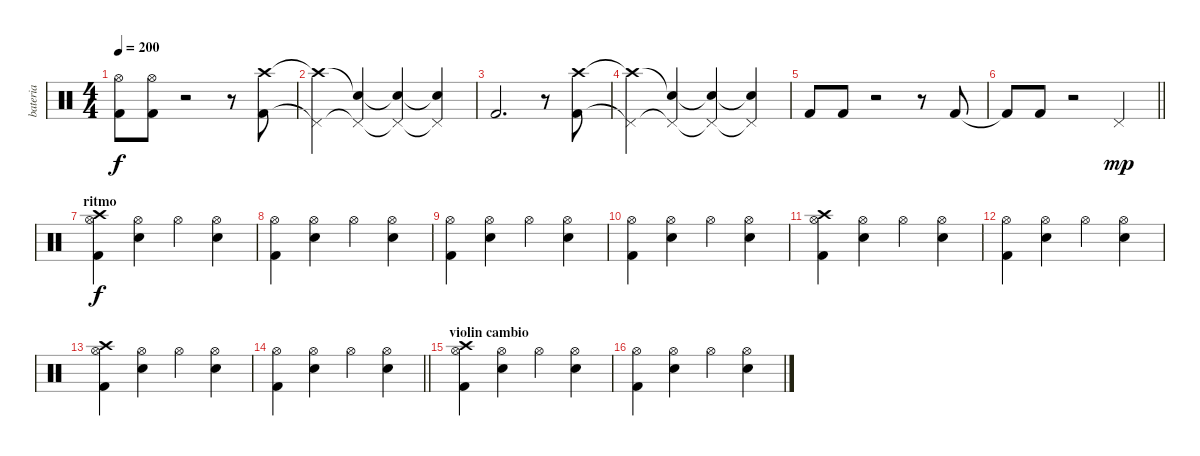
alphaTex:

\track ("bateria" "bateria") {instrument percussion}
\staff {score}
\articulation defaults
\ts (4 4)
\tempo 200
\clef neutral
\ks c
("Kick (hit) 2" "Hi-Hat (open)").8{dy f} ("Kick (hit) 2" "Hi-Hat (open)").8 r.2 r.8 ("Kick (hit) 2" "Crash high (hit)").8 |
("Pedal Hi-Hat (hit)"{t} "Crash high (hit)"{t}).4 ("Pedal Hi-Hat (hit)"{t} "Snare (hit)"{t}).4 ("Pedal Hi-Hat (hit)"{t} "Snare (hit)"{t}).4 ("Pedal Hi-Hat (hit)"{t} "Snare (hit)"{t}).4 |
"Kick (hit) 2".2{d} r.8 ("Kick (hit) 2" "Crash high (hit)").8 |
("Pedal Hi-Hat (hit)"{t} "Crash high (hit)"{t}).4 ("Pedal Hi-Hat (hit)"{t} "Snare (hit)"{t}).4 ("Pedal Hi-Hat (hit)"{t} "Snare (hit)"{t}).4 ("Pedal Hi-Hat (hit)"{t} "Snare (hit)"{t}).4 |
"Kick (hit) 2".8 "Kick (hit) 2".8 r.2 r.8 "Kick (hit) 2".8 |
\barLineRight lightlight "Kick (hit) 2"{t}.8 "Kick (hit) 2".8
r.2 "Pedal Hi-Hat (hit)".4{dy mp} |
\section ("" "ritmo")
("Hi-Hat (open)" "Kick (hit) 2" "Crash high (hit)").4{dy f} ("Hi-Hat (open)" "Electric Snare (hit)").4 "Hi-Hat (open)".4 ("Hi-Hat (open)" "Electric Snare (hit)").4 |
("Hi-Hat (open)" "Kick (hit) 2").4 ("Hi-Hat (open)" "Electric Snare (hit)").4 "Hi-Hat (open)".4 ("Hi-Hat (open)" "Electric Snare (hit)").4 |
("Hi-Hat (open)" "Kick (hit) 2").4 ("Hi-Hat (open)" "Electric Snare (hit)").4 "Hi-Hat (open)".4 ("Hi-Hat (open)" "Electric Snare (hit)").4 |
("Hi-Hat (open)" "Kick (hit) 2").4 ("Hi-Hat (open)" "Electric Snare (hit)").4 "Hi-Hat (open)".4 ("Hi-Hat (open)" "Electric Snare (hit)").4 |
("Hi-Hat (open)" "Kick (hit) 2" "Crash high (hit)").4 ("Hi-Hat (open)" "Electric Snare (hit)").4 "Hi-Hat (open)".4 ("Hi-Hat (open)" "Electric Snare (hit)").4 |
("Hi-Hat (open)" "Kick (hit) 2").4 ("Hi-Hat (open)" "Electric Snare (hit)").4 "Hi-Hat (open)".4 ("Hi-Hat (open)" "Electric Snare (hit)").4 |
("Hi-Hat (open)" "Kick (hit) 2" "Crash high (hit)").4 ("Hi-Hat (open)" "Electric Snare (hit)").4 "Hi-Hat (open)".4 ("Hi-Hat (open)" "Electric Snare (hit)").4 |
\barLineRight lightlight
("Hi-Hat (open)" "Kick (hit) 2").4 ("Hi-Hat (open)" "Electric Snare (hit)").4 "Hi-Hat (open)".4 ("Hi-Hat (open)" "Electric Snare (hit)").4 |
\section ("" "violin cambio")
("Hi-Hat (open)" "Kick (hit) 2" "Crash high (hit)").4 ("Hi-Hat (open)" "Electric Snare (hit)").4 "Hi-Hat (open)".4 ("Hi-Hat (open)" "Electric Snare (hit)").4 |
("Hi-Hat (open)" "Kick (hit) 2").4 ("Hi-Hat (open)" "Electric Snare (hit)").4 "Hi-Hat (open)".4 ("Hi-Hat (open)" "Electric Snare (hit)").4
